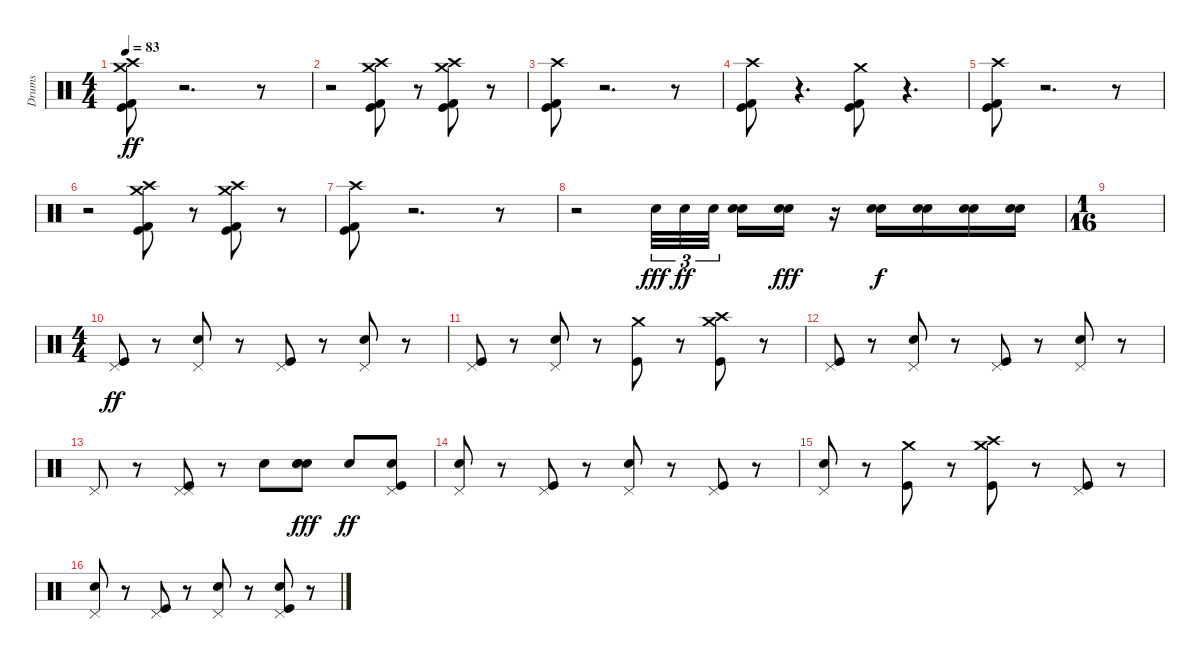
\track ("Drums" "Drums") {instrument percussion}
\staff {score}
\articulation defaults
\ts (4 4)
\tempo 83
\clef neutral
\ks c
("Crash medium (hit)" "Crash high (hit)" "Kick (hit)" "Kick (hit) 2").8{dy ff} r.2{d} r.8 |
r.2 ("Crash medium (hit)" "Kick (hit)" "Crash high (hit)" "Kick (hit) 2").8 r.8 ("Crash medium (hit)" "Kick (hit)" "Crash high (hit)" "Kick (hit) 2").8 r.8 |
("Kick (hit)" "Crash high (hit)" "Kick (hit) 2").8 r.2{d} r.8 |
("Crash high (hit)" "Kick (hit)" "Kick (hit) 2").8 r.4{d} ("Kick (hit) 2" "Crash medium (hit)" "Kick (hit)").8 r.4{d} |
("Crash high (hit)" "Kick (hit)" "Kick (hit) 2").8 r.2{d} r.8 |
r.2 ("Crash medium (hit)" "Kick (hit)" "Crash high (hit)" "Kick (hit) 2").8 r.8 ("Crash medium (hit)" "Kick (hit)" "Kick (hit) 2" "Crash high (hit)").8 r.8 |
("Crash high (hit)" "Kick (hit) 2" "Kick (hit)").8 r.2{d} r.8 |
r.2 "Electric Snare (hit)".32{tu (3 2) dy fff} "Snare (hit) 2".32{tu (3 2) dy ff} "Snare (hit) 2".32{tu (3 2)} ("Snare (hit) 2" "Snare (hit) 2").16 ("Snare (hit) 2" "Snare (hit) 2").16{dy fff} r.16 ("Snare (hit) 2" "Snare (hit) 2").16{dy f} ("Snare (hit) 2" "Snare (hit) 2").16 ("Snare (hit) 2" "Snare (hit) 2").16 ("Snare (hit) 2" "Snare (hit) 2").16 |
\ts (1 16)
|
\ts (4 4)
("Pedal Hi-Hat (hit)" "Kick (hit)").8{dy ff} r.8 ("Pedal Hi-Hat (hit)" "Snare (hit) 2").8 r.8 ("Pedal Hi-Hat (hit)" "Kick (hit)").8 r.8 ("Pedal Hi-Hat (hit)" "Snare (hit) 2").8 r.8 |
("Pedal Hi-Hat (hit)" "Kick (hit)").8 r.8 ("Snare (hit) 2" "Pedal Hi-Hat (hit)").8 r.8 ("Crash medium (hit)" "Kick (hit)").8 r.8 ("Crash medium (hit)" "Crash high (hit)" "Kick (hit)").8 r.8 |
("Kick (hit)" "Pedal Hi-Hat (hit)").8 r.8 ("Pedal Hi-Hat (hit)" "Snare (hit) 2").8 r.8 ("Kick (hit)" "Pedal Hi-Hat (hit)").8 r.8 ("Pedal Hi-Hat (hit)" "Snare (hit) 2").8 r.8 |
"Pedal Hi-Hat (hit)".8 r.8 ("Kick (hit)" "Pedal Hi-Hat (hit)" "Pedal Hi-Hat (hit)").8 r.8 "Snare (hit) 2".8 ("Snare (hit) 2" "Snare (hit) 2" "Snare (hit) 2").8{dy fff} "Snare (hit) 2".8{dy ff} ("Snare (hit) 2" "Kick (hit)" "Pedal Hi-Hat (hit)").8 |
("Snare (hit) 2" "Pedal Hi-Hat (hit)").8 r.8 ("Pedal Hi-Hat (hit)" "Kick (hit)").8 r.8 ("Snare (hit) 2" "Pedal Hi-Hat (hit)").8 r.8 ("Kick (hit)" "Pedal Hi-Hat (hit)").8 r.8 |
("Snare (hit) 2" "Pedal Hi-Hat (hit)").8 r.8 ("Kick (hit)" "Crash medium (hit)").8 r.8 ("Crash high (hit)" "Kick (hit)" "Crash medium (hit)").8 r.8 ("Kick (hit)" "Pedal Hi-Hat (hit)").8 r.8 |
("Pedal Hi-Hat (hit)" "Snare (hit) 2").8 r.8 ("Kick (hit)" "Pedal Hi-Hat (hit)").8 r.8 ("Snare (hit) 2" "Pedal Hi-Hat (hit)").8 r.8 ("Snare (hit) 2" "Pedal Hi-Hat (hit)" "Kick (hit)").8 r.8
